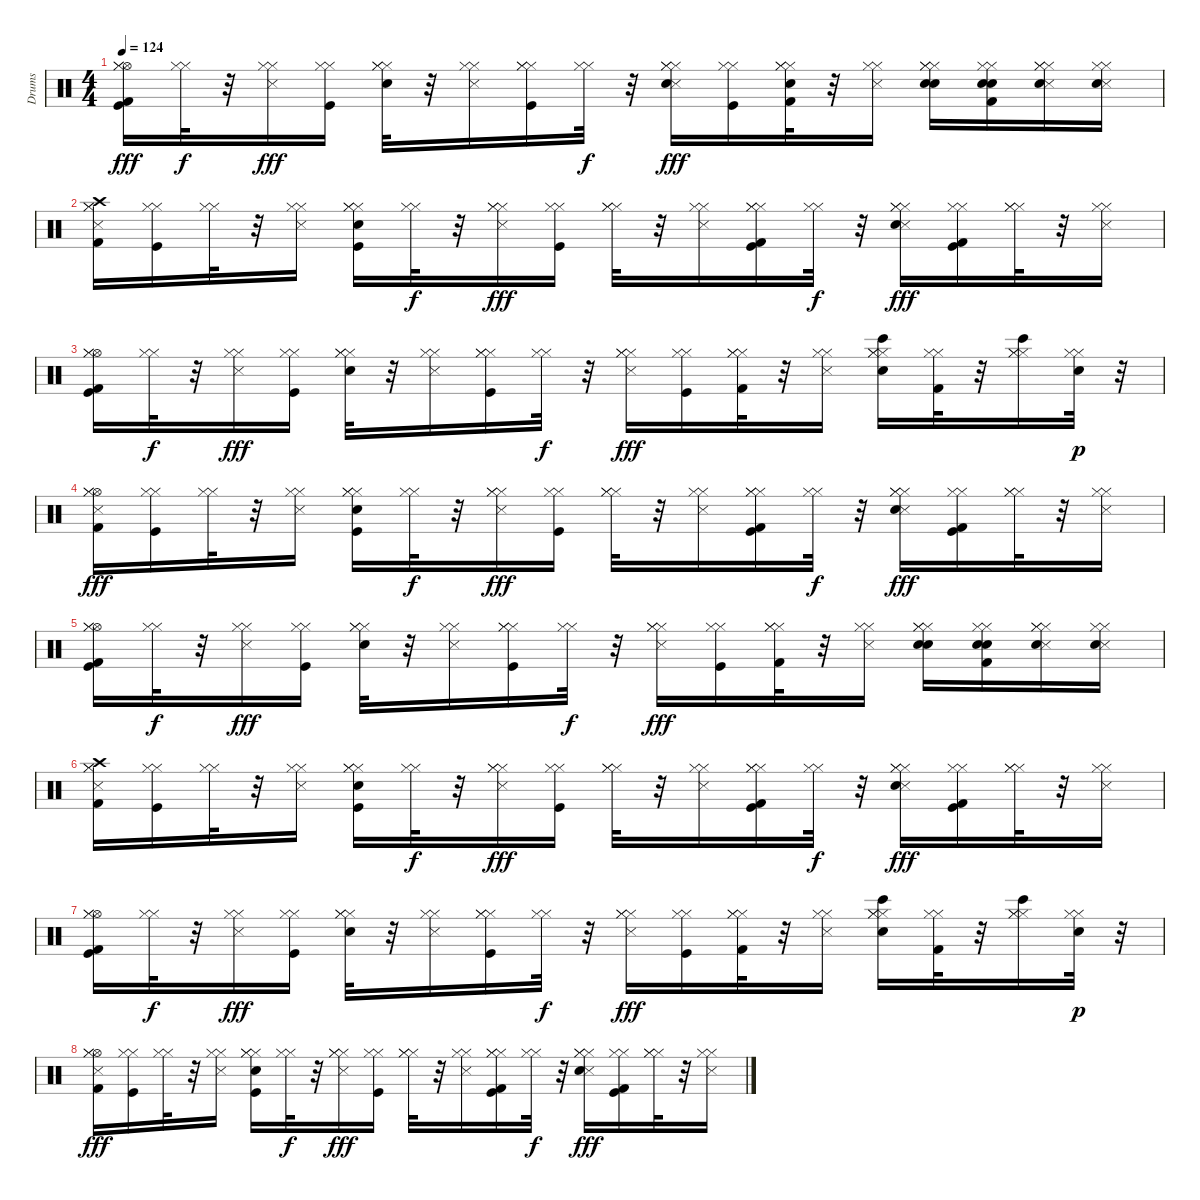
\track ("Drums" "Drums") {instrument percussion}
\staff {score}
\articulation defaults
\ts (4 4)
\tempo 124
\clef neutral
\ks c
("Kick (hit)" "Kick (hit) 2" "Hi-Hat (open)" "Hi-Hat (closed)" "Hi-Hat (closed)").16{dy fff} ("Hi-Hat (closed)" "Hi-Hat (closed)").32{dy f} r.32 ("Metronome (hit)" "Hi-Hat (closed)" "Hi-Hat (closed)").16{dy fff} ("Kick (hit)" "Hi-Hat (closed)" "Hi-Hat (closed)").16 ("Hi-Hat (closed)" "Electric Snare (hit)" "Hi-Hat (closed)" "Hi-Hat (closed)").32 r.32 ("Metronome (hit)" "Hi-Hat (closed)" "Hi-Hat (closed)").16 ("Kick (hit)" "Hi-Hat (closed)" "Hi-Hat (closed)" "Hi-Hat (closed)").16 ("Hi-Hat (closed)" "Hi-Hat (closed)").32{dy f} r.32 ("Metronome (hit)" "Electric Snare (hit)" "Hi-Hat (closed)" "Hi-Hat (closed)" "Hi-Hat (closed)").16{dy fff} ("Kick (hit)" "Hi-Hat (closed)" "Hi-Hat (closed)").16 ("Electric Snare (hit)" "Kick (hit) 2" "Hi-Hat (closed)" "Hi-Hat (closed)" "Hi-Hat (closed)").32 r.32 ("Metronome (hit)" "Hi-Hat (closed)" "Hi-Hat (closed)").16 ("Hand Clap (hit)" "Hi-Hat (closed)" "Electric Snare (hit)" "Hi-Hat (closed)" "Hi-Hat (closed)").16 ("Hand Clap (hit)" "Electric Snare (hit)" "Kick (hit) 2" "Hi-Hat (closed)" "Hi-Hat (closed)").16 ("Snare (side stick) 3" "Electric Snare (hit)" "Hi-Hat (closed)" "Hi-Hat (closed)" "Hi-Hat (closed)").16 ("Snare (side stick) 3" "Electric Snare (hit)" "Hi-Hat (closed)" "Hi-Hat (closed)").16 |
("Metronome (hit)" "Crash high (hit)" "Kick (hit) 2" "Hi-Hat (closed)" "Hi-Hat (closed)").16 ("Kick (hit)" "Hi-Hat (closed)" "Hi-Hat (closed)").16 ("Hi-Hat (closed)" "Hi-Hat (closed)").32 r.32 ("Metronome (hit)" "Hi-Hat (closed)" "Hi-Hat (closed)").16 ("Kick (hit)" "Hi-Hat (closed)" "Electric Snare (hit)" "Hi-Hat (closed)" "Hi-Hat (closed)").16 ("Hi-Hat (closed)" "Hi-Hat (closed)").32{dy f} r.32 ("Metronome (hit)" "Hi-Hat (closed)" "Hi-Hat (closed)" "Hi-Hat (closed)").16{dy fff} ("Kick (hit)" "Hi-Hat (closed)" "Hi-Hat (closed)").16 ("Hi-Hat (closed)" "Hi-Hat (closed)" "Hi-Hat (closed)").32 r.32 ("Metronome (hit)" "Hi-Hat (closed)" "Hi-Hat (closed)").16 ("Kick (hit)" "Hi-Hat (closed)" "Kick (hit) 2" "Hi-Hat (closed)" "Hi-Hat (closed)").16 ("Hi-Hat (closed)" "Hi-Hat (closed)").32{dy f} r.32 ("Metronome (hit)" "Hi-Hat (closed)" "Electric Snare (hit)" "Hi-Hat (closed)" "Hi-Hat (closed)").16{dy fff} ("Kick (hit)" "Kick (hit) 2" "Hi-Hat (closed)" "Hi-Hat (closed)").16 ("Hi-Hat (closed)" "Hi-Hat (closed)" "Hi-Hat (closed)").32 r.32 ("Metronome (hit)" "Hi-Hat (closed)" "Hi-Hat (closed)").16 |
("Kick (hit)" "Hi-Hat (open)" "Kick (hit) 2" "Hi-Hat (closed)" "Hi-Hat (closed)").16 ("Hi-Hat (closed)" "Hi-Hat (closed)").32{dy f} r.32 ("Metronome (hit)" "Hi-Hat (closed)" "Hi-Hat (closed)").16{dy fff} ("Kick (hit)" "Hi-Hat (closed)" "Hi-Hat (closed)").16 ("Electric Snare (hit)" "Hi-Hat (closed)" "Hi-Hat (closed)" "Hi-Hat (closed)").32 r.32 ("Metronome (hit)" "Hi-Hat (closed)" "Hi-Hat (closed)").16 ("Kick (hit)" "Hi-Hat (closed)" "Hi-Hat (closed)" "Hi-Hat (closed)").16 ("Hi-Hat (closed)" "Hi-Hat (closed)").32{dy f} r.32 ("Metronome (hit)" "Hi-Hat (closed)" "Hi-Hat (closed)" "Hi-Hat (closed)").16{dy fff} ("Kick (hit)" "Hi-Hat (closed)" "Hi-Hat (closed)").16 ("Hi-Hat (closed)" "Kick (hit) 2" "Hi-Hat (closed)" "Hi-Hat (closed)").32 r.32 ("Metronome (hit)" "Hi-Hat (closed)" "Hi-Hat (closed)").16 ("Bongo High (hit)" "Electric Snare (hit)" "Hi-Hat (closed)" "Hi-Hat (closed)" "Hi-Hat (closed)").16 ("Kick (hit) 2" "Hi-Hat (closed)" "Hi-Hat (closed)").32 r.32 ("Bongo High (hit)" "Hi-Hat (closed)" "Hi-Hat (closed)" "Hi-Hat (closed)").16 ("Hi-Hat (closed)" "Hi-Hat (closed)" "Electric Snare (hit)").32{dy p} r.32 |
("Metronome (hit)" "Kick (hit) 2" "Hi-Hat (open)" "Hi-Hat (closed)" "Hi-Hat (closed)").16{dy fff} ("Kick (hit)" "Hi-Hat (closed)" "Hi-Hat (closed)").16 ("Hi-Hat (closed)" "Hi-Hat (closed)").32 r.32 ("Metronome (hit)" "Hi-Hat (closed)" "Hi-Hat (closed)").16 ("Kick (hit)" "Electric Snare (hit)" "Hi-Hat (closed)" "Hi-Hat (closed)" "Hi-Hat (closed)").16 ("Hi-Hat (closed)" "Hi-Hat (closed)").32{dy f} r.32 ("Metronome (hit)" "Hi-Hat (closed)" "Hi-Hat (closed)" "Hi-Hat (closed)").16{dy fff} ("Kick (hit)" "Hi-Hat (closed)" "Hi-Hat (closed)").16 ("Hi-Hat (closed)" "Hi-Hat (closed)" "Hi-Hat (closed)").32 r.32 ("Metronome (hit)" "Hi-Hat (closed)" "Hi-Hat (closed)").16 ("Kick (hit)" "Kick (hit) 2" "Hi-Hat (closed)" "Hi-Hat (closed)" "Hi-Hat (closed)").16 ("Hi-Hat (closed)" "Hi-Hat (closed)").32{dy f} r.32 ("Metronome (hit)" "Electric Snare (hit)" "Hi-Hat (closed)" "Hi-Hat (closed)" "Hi-Hat (closed)").16{dy fff} ("Kick (hit)" "Kick (hit) 2" "Hi-Hat (closed)" "Hi-Hat (closed)").16 ("Hi-Hat (closed)" "Hi-Hat (closed)" "Hi-Hat (closed)").32 r.32 ("Metronome (hit)" "Hi-Hat (closed)" "Hi-Hat (closed)").16 |
("Kick (hit)" "Kick (hit) 2" "Hi-Hat (open)" "Hi-Hat (closed)" "Hi-Hat (closed)").16 ("Hi-Hat (closed)" "Hi-Hat (closed)").32{dy f} r.32 ("Metronome (hit)" "Hi-Hat (closed)" "Hi-Hat (closed)").16{dy fff} ("Kick (hit)" "Hi-Hat (closed)" "Hi-Hat (closed)").16 ("Hi-Hat (closed)" "Electric Snare (hit)" "Hi-Hat (closed)" "Hi-Hat (closed)").32 r.32 ("Metronome (hit)" "Hi-Hat (closed)" "Hi-Hat (closed)").16 ("Kick (hit)" "Hi-Hat (closed)" "Hi-Hat (closed)" "Hi-Hat (closed)").16 ("Hi-Hat (closed)" "Hi-Hat (closed)").32{dy f} r.32 ("Metronome (hit)" "Hi-Hat (closed)" "Hi-Hat (closed)" "Hi-Hat (closed)").16{dy fff} ("Kick (hit)" "Hi-Hat (closed)" "Hi-Hat (closed)").16 ("Kick (hit) 2" "Hi-Hat (closed)" "Hi-Hat (closed)" "Hi-Hat (closed)").32 r.32 ("Metronome (hit)" "Hi-Hat (closed)" "Hi-Hat (closed)").16 ("Hand Clap (hit)" "Hi-Hat (closed)" "Electric Snare (hit)" "Hi-Hat (closed)" "Hi-Hat (closed)").16 ("Hand Clap (hit)" "Electric Snare (hit)" "Kick (hit) 2" "Hi-Hat (closed)" "Hi-Hat (closed)").16 ("Snare (side stick) 3" "Electric Snare (hit)" "Hi-Hat (closed)" "Hi-Hat (closed)" "Hi-Hat (closed)").16 ("Snare (side stick) 3" "Electric Snare (hit)" "Hi-Hat (closed)" "Hi-Hat (closed)").16 |
("Metronome (hit)" "Crash high (hit)" "Kick (hit) 2" "Hi-Hat (closed)" "Hi-Hat (closed)").16 ("Kick (hit)" "Hi-Hat (closed)" "Hi-Hat (closed)").16 ("Hi-Hat (closed)" "Hi-Hat (closed)").32 r.32 ("Metronome (hit)" "Hi-Hat (closed)" "Hi-Hat (closed)").16 ("Kick (hit)" "Hi-Hat (closed)" "Electric Snare (hit)" "Hi-Hat (closed)" "Hi-Hat (closed)").16 ("Hi-Hat (closed)" "Hi-Hat (closed)").32{dy f} r.32 ("Metronome (hit)" "Hi-Hat (closed)" "Hi-Hat (closed)" "Hi-Hat (closed)").16{dy fff} ("Kick (hit)" "Hi-Hat (closed)" "Hi-Hat (closed)").16 ("Hi-Hat (closed)" "Hi-Hat (closed)" "Hi-Hat (closed)").32 r.32 ("Metronome (hit)" "Hi-Hat (closed)" "Hi-Hat (closed)").16 ("Kick (hit)" "Hi-Hat (closed)" "Kick (hit) 2" "Hi-Hat (closed)" "Hi-Hat (closed)").16 ("Hi-Hat (closed)" "Hi-Hat (closed)").32{dy f} r.32 ("Metronome (hit)" "Hi-Hat (closed)" "Electric Snare (hit)" "Hi-Hat (closed)" "Hi-Hat (closed)").16{dy fff} ("Kick (hit)" "Kick (hit) 2" "Hi-Hat (closed)" "Hi-Hat (closed)").16 ("Hi-Hat (closed)" "Hi-Hat (closed)" "Hi-Hat (closed)").32 r.32 ("Metronome (hit)" "Hi-Hat (closed)" "Hi-Hat (closed)").16 |
("Kick (hit)" "Hi-Hat (open)" "Kick (hit) 2" "Hi-Hat (closed)" "Hi-Hat (closed)").16 ("Hi-Hat (closed)" "Hi-Hat (closed)").32{dy f} r.32 ("Metronome (hit)" "Hi-Hat (closed)" "Hi-Hat (closed)").16{dy fff} ("Kick (hit)" "Hi-Hat (closed)" "Hi-Hat (closed)").16 ("Electric Snare (hit)" "Hi-Hat (closed)" "Hi-Hat (closed)" "Hi-Hat (closed)").32 r.32 ("Metronome (hit)" "Hi-Hat (closed)" "Hi-Hat (closed)").16 ("Kick (hit)" "Hi-Hat (closed)" "Hi-Hat (closed)" "Hi-Hat (closed)").16 ("Hi-Hat (closed)" "Hi-Hat (closed)").32{dy f} r.32 ("Metronome (hit)" "Hi-Hat (closed)" "Hi-Hat (closed)" "Hi-Hat (closed)").16{dy fff} ("Kick (hit)" "Hi-Hat (closed)" "Hi-Hat (closed)").16 ("Hi-Hat (closed)" "Kick (hit) 2" "Hi-Hat (closed)" "Hi-Hat (closed)").32 r.32 ("Metronome (hit)" "Hi-Hat (closed)" "Hi-Hat (closed)").16 ("Bongo High (hit)" "Electric Snare (hit)" "Hi-Hat (closed)" "Hi-Hat (closed)" "Hi-Hat (closed)").16 ("Kick (hit) 2" "Hi-Hat (closed)" "Hi-Hat (closed)").32 r.32 ("Bongo High (hit)" "Hi-Hat (closed)" "Hi-Hat (closed)" "Hi-Hat (closed)").16 ("Hi-Hat (closed)" "Hi-Hat (closed)" "Electric Snare (hit)").32{dy p} r.32 |
("Metronome (hit)" "Kick (hit) 2" "Hi-Hat (open)" "Hi-Hat (closed)" "Hi-Hat (closed)").16{dy fff} ("Kick (hit)" "Hi-Hat (closed)" "Hi-Hat (closed)").16 ("Hi-Hat (closed)" "Hi-Hat (closed)").32 r.32 ("Metronome (hit)" "Hi-Hat (closed)" "Hi-Hat (closed)").16 ("Kick (hit)" "Electric Snare (hit)" "Hi-Hat (closed)" "Hi-Hat (closed)" "Hi-Hat (closed)").16 ("Hi-Hat (closed)" "Hi-Hat (closed)").32{dy f} r.32 ("Metronome (hit)" "Hi-Hat (closed)" "Hi-Hat (closed)" "Hi-Hat (closed)").16{dy fff} ("Kick (hit)" "Hi-Hat (closed)" "Hi-Hat (closed)").16 ("Hi-Hat (closed)" "Hi-Hat (closed)" "Hi-Hat (closed)").32 r.32 ("Metronome (hit)" "Hi-Hat (closed)" "Hi-Hat (closed)").16 ("Kick (hit)" "Kick (hit) 2" "Hi-Hat (closed)" "Hi-Hat (closed)" "Hi-Hat (closed)").16 ("Hi-Hat (closed)" "Hi-Hat (closed)").32{dy f} r.32 ("Metronome (hit)" "Electric Snare (hit)" "Hi-Hat (closed)" "Hi-Hat (closed)" "Hi-Hat (closed)").16{dy fff} ("Kick (hit)" "Kick (hit) 2" "Hi-Hat (closed)" "Hi-Hat (closed)").16 ("Hi-Hat (closed)" "Hi-Hat (closed)" "Hi-Hat (closed)").32 r.32 ("Metronome (hit)" "Hi-Hat (closed)" "Hi-Hat (closed)").16
